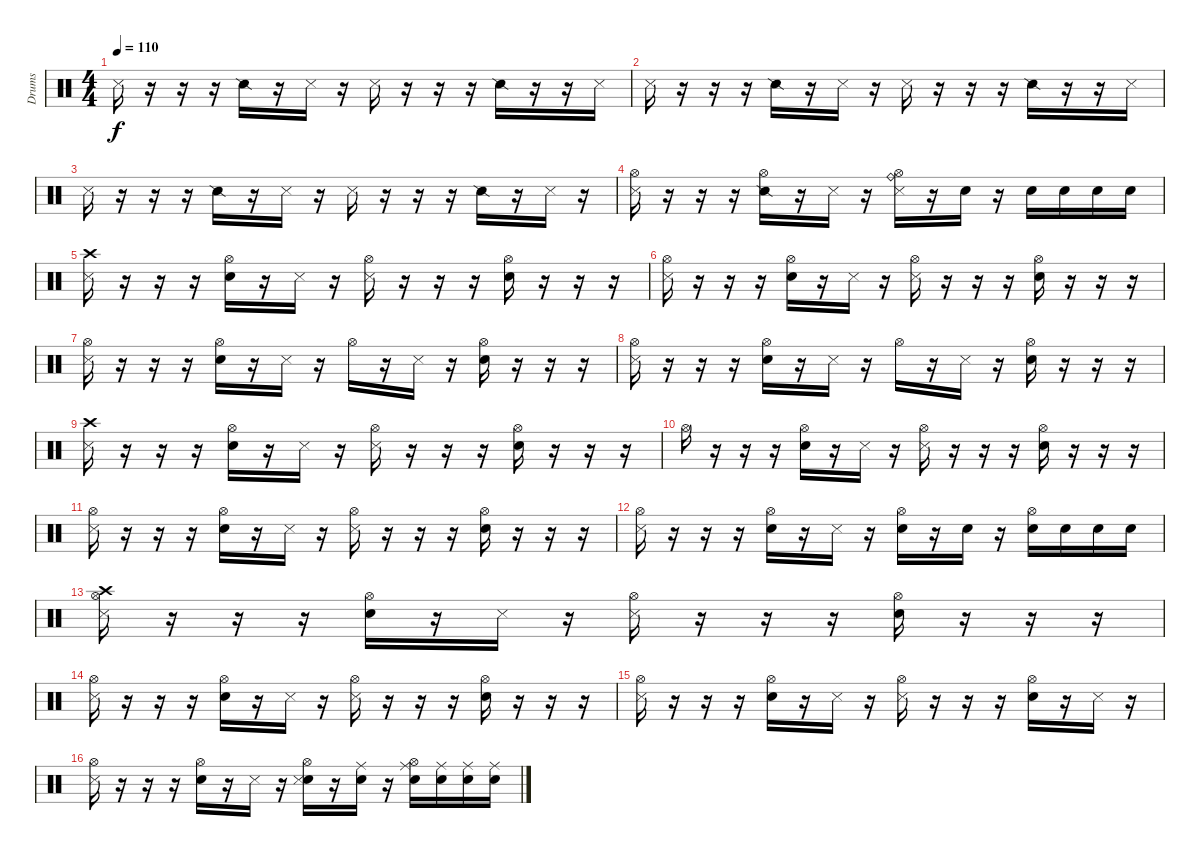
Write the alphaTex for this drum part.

\track ("Drums" "Drums") {instrument percussion}
\staff {score}
\articulation defaults
\ts (4 4)
\tempo 110
\clef neutral
\ks c "Metronome (hit)".16{dy f}
r.16 r.16 r.16 "Snare (side stick) 2".16 r.16 "Metronome (hit)".16 r.16 "Metronome (hit)".16 r.16 r.16 r.16 "Snare (side stick) 2".16 r.16 r.16 "Metronome (hit)".16 |
"Metronome (hit)".16 r.16 r.16 r.16 "Snare (side stick) 2".16 r.16 "Metronome (hit)".16 r.16 "Metronome (hit)".16 r.16 r.16 r.16 "Snare (side stick) 2".16 r.16 r.16 "Metronome (hit)".16 |
"Metronome (hit)".16 r.16 r.16 r.16 "Snare (side stick) 2".16 r.16 "Metronome (hit)".16 r.16 "Metronome (hit)".16 r.16 r.16 r.16 "Snare (side stick) 2".16 r.16 "Metronome (hit)".16 r.16 |
("Hi-Hat (open)" "Metronome (hit)").16 r.16 r.16 r.16 ("Hi-Hat (open)" "Snare (side stick) 2").16 r.16 "Metronome (hit)".16 r.16 ("Hi-Hat (open)" "Ride (bell)" "Metronome (hit)").16 r.16 "Electric Snare (hit)".16 r.16 "Electric Snare (hit)".16 "Electric Snare (hit)".16 "Electric Snare (hit)".16 "Electric Snare (hit)".16 |
("Crash high (hit)" "Metronome (hit)").16 r.16 r.16 r.16 ("Hi-Hat (open)" "Electric Snare (hit)").16 r.16 "Metronome (hit)".16 r.16 ("Hi-Hat (open)" "Metronome (hit)").16 r.16 r.16 r.16 ("Hi-Hat (open)" "Electric Snare (hit)").16 r.16 r.16 r.16 |
("Hi-Hat (open)" "Metronome (hit)").16 r.16 r.16 r.16 ("Hi-Hat (open)" "Electric Snare (hit)").16 r.16 "Metronome (hit)".16 r.16 ("Hi-Hat (open)" "Metronome (hit)").16 r.16 r.16 r.16 ("Hi-Hat (open)" "Electric Snare (hit)").16 r.16 r.16 r.16 |
("Hi-Hat (open)" "Metronome (hit)").16 r.16 r.16 r.16 ("Hi-Hat (open)" "Electric Snare (hit)").16 r.16 "Metronome (hit)".16 r.16 "Hi-Hat (open)".16 r.16 "Metronome (hit)".16 r.16 ("Hi-Hat (open)" "Electric Snare (hit)").16 r.16 r.16 r.16 |
("Hi-Hat (open)" "Metronome (hit)").16 r.16 r.16 r.16 ("Hi-Hat (open)" "Electric Snare (hit)").16 r.16 "Metronome (hit)".16 r.16 "Hi-Hat (open)".16 r.16 "Metronome (hit)".16 r.16 ("Hi-Hat (open)" "Electric Snare (hit)").16 r.16 r.16 r.16 |
("Crash high (hit)" "Metronome (hit)").16 r.16 r.16 r.16 ("Hi-Hat (open)" "Electric Snare (hit)").16 r.16 "Metronome (hit)".16 r.16 ("Hi-Hat (open)" "Metronome (hit)").16 r.16 r.16 r.16 ("Hi-Hat (open)" "Electric Snare (hit)").16 r.16 r.16 r.16 |
"Hi-Hat (open)".16 r.16 r.16 r.16 ("Hi-Hat (open)" "Electric Snare (hit)").16 r.16 "Metronome (hit)".16 r.16 ("Hi-Hat (open)" "Metronome (hit)").16 r.16 r.16 r.16 ("Hi-Hat (open)" "Electric Snare (hit)").16 r.16 r.16 r.16 |
("Hi-Hat (open)" "Metronome (hit)").16 r.16 r.16 r.16 ("Hi-Hat (open)" "Electric Snare (hit)").16 r.16 "Metronome (hit)".16 r.16 ("Hi-Hat (open)" "Metronome (hit)").16 r.16 r.16 r.16 ("Hi-Hat (open)" "Electric Snare (hit)").16 r.16 r.16 r.16 |
("Hi-Hat (open)" "Metronome (hit)").16 r.16 r.16 r.16 ("Hi-Hat (open)" "Electric Snare (hit)").16 r.16 "Metronome (hit)".16 r.16 ("Hi-Hat (open)" "Electric Snare (hit)").16 r.16 "Electric Snare (hit)".16 r.16 ("Hi-Hat (open)" "Electric Snare (hit)").16 "Electric Snare (hit)".16 "Electric Snare (hit)".16 "Electric Snare (hit)".16 |
("Hi-Hat (open)" "Crash high (hit)" "Metronome (hit)").16 r.16 r.16 r.16 ("Hi-Hat (open)" "Electric Snare (hit)").16 r.16 "Metronome (hit)".16 r.16 ("Hi-Hat (open)" "Metronome (hit)").16 r.16 r.16 r.16 ("Hi-Hat (open)" "Electric Snare (hit)").16 r.16 r.16 r.16 |
("Hi-Hat (open)" "Metronome (hit)").16 r.16 r.16 r.16 ("Hi-Hat (open)" "Electric Snare (hit)").16 r.16 "Metronome (hit)".16 r.16 ("Hi-Hat (open)" "Metronome (hit)").16 r.16 r.16 r.16 ("Hi-Hat (open)" "Electric Snare (hit)").16 r.16 r.16 r.16 |
("Hi-Hat (open)" "Metronome (hit)").16 r.16 r.16 r.16 ("Hi-Hat (open)" "Electric Snare (hit)").16 r.16 "Metronome (hit)".16 r.16 ("Hi-Hat (open)" "Metronome (hit)").16 r.16 r.16 r.16 ("Hi-Hat (open)" "Electric Snare (hit)").16 r.16 "Metronome (hit)".16 r.16 |
("Hi-Hat (open)" "Metronome (hit)").16 r.16 r.16 r.16 ("Hi-Hat (open)" "Electric Snare (hit)").16 r.16 "Metronome (hit)".16 r.16 ("Hi-Hat (open)" "Electric Snare (hit)" "Metronome (hit)").16 r.16 ("Ride (middle)" "Electric Snare (hit)").16 r.16 ("Hi-Hat (open)" "Ride (middle)" "Electric Snare (hit)").16 ("Ride (middle)" "Electric Snare (hit)").16 ("Ride (middle)" "Electric Snare (hit)").16 ("Ride (middle)" "Electric Snare (hit)").16
